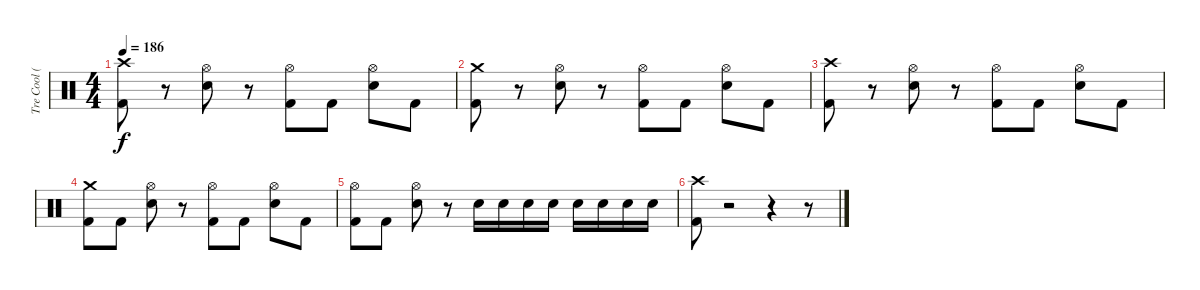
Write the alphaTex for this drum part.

\track ("Tre Cool (Drums)" "Tre Cool (") {instrument percussion}
\staff {score}
\articulation defaults
\ts (4 4)
\tempo 186
\clef neutral
\ks c
("Crash high (hit)" "Kick (hit) 2").8{dy f} r.8 ("Hi-Hat (open)" "Snare (hit) 2").8 r.8 ("Hi-Hat (open)" "Kick (hit) 2").8 "Kick (hit) 2".8 ("Hi-Hat (open)" "Snare (hit) 2").8 "Kick (hit) 2".8 |
("Kick (hit) 2" "Crash medium (hit)").8 r.8 ("Snare (hit) 2" "Hi-Hat (open)").8 r.8 ("Kick (hit) 2" "Hi-Hat (open)").8 "Kick (hit) 2".8 ("Snare (hit) 2" "Hi-Hat (open)").8 "Kick (hit) 2".8 |
("Kick (hit) 2" "Crash high (hit)").8 r.8 ("Snare (hit) 2" "Hi-Hat (open)").8 r.8 ("Kick (hit) 2" "Hi-Hat (open)").8 "Kick (hit) 2".8 ("Snare (hit) 2" "Hi-Hat (open)").8 "Kick (hit) 2".8 |
("Crash medium (hit)" "Kick (hit) 2").8 "Kick (hit) 2".8 ("Hi-Hat (open)" "Snare (hit) 2").8 r.8 ("Hi-Hat (open)" "Kick (hit) 2").8 "Kick (hit) 2".8 ("Hi-Hat (open)" "Snare (hit) 2").8 "Kick (hit) 2".8 |
("Hi-Hat (open)" "Kick (hit) 2").8 "Kick (hit) 2".8 ("Hi-Hat (open)" "Snare (hit) 2").8 r.8 "Snare (hit) 2".16 "Snare (hit) 2".16 "Snare (hit) 2".16 "Snare (hit) 2".16 "Snare (hit) 2".16 "Snare (hit) 2".16 "Snare (hit) 2".16 "Snare (hit) 2".16 |
("Crash high (hit)" "Kick (hit) 2").8 r.2 r.4 r.8
